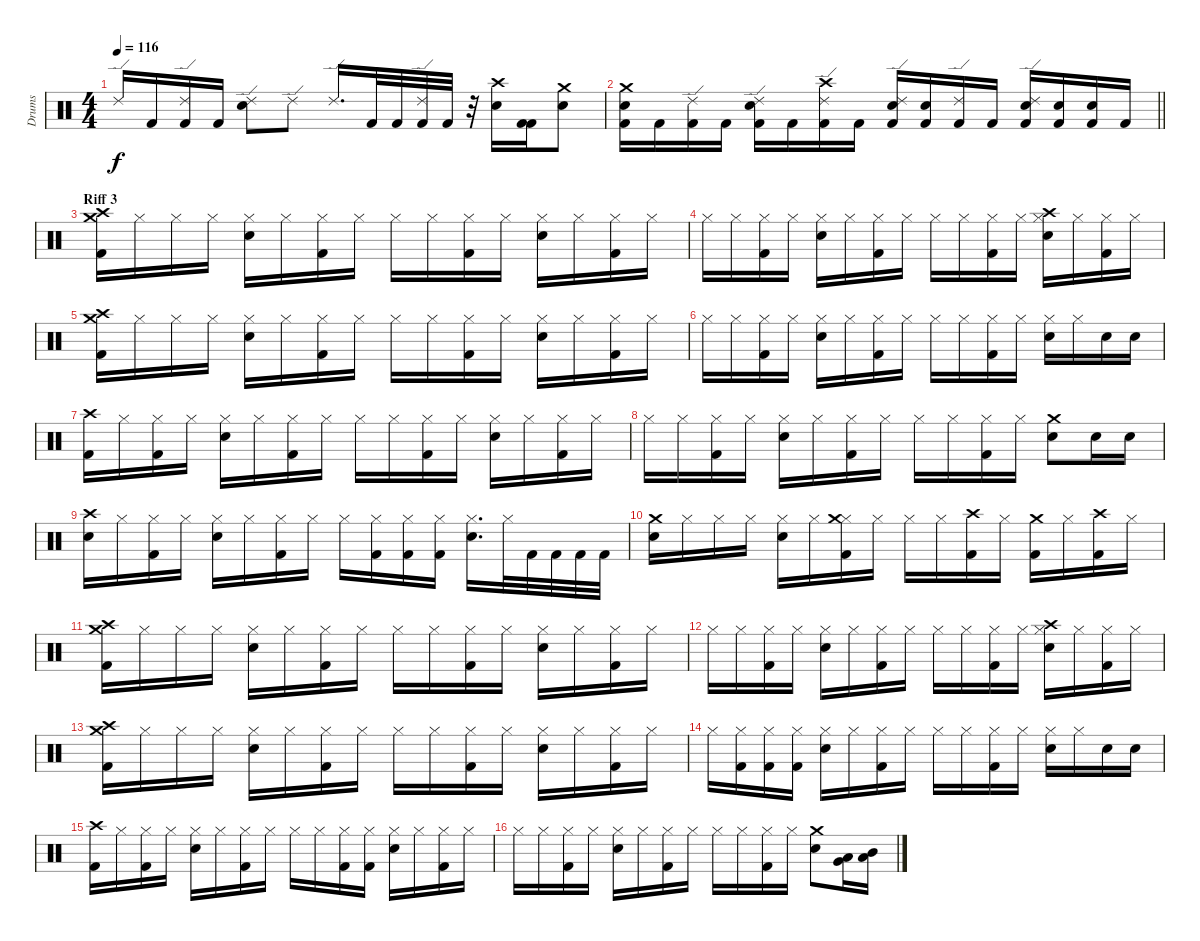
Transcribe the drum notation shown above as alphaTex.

\track ("Drums" "Drums") {instrument percussion}
\staff {score}
\articulation defaults
\ts (4 4)
\tempo 116
\clef neutral
\ks c "Ride (edge) 2".16{dy f} "Kick (hit) 2".16
("Ride (edge) 2" "Kick (hit) 2").16 "Kick (hit) 2".16 ("Ride (edge) 2" "Snare (hit) 2").8 "Ride (edge) 2".8 "Ride (edge) 2".16{d} "Kick (hit) 2".32 "Kick (hit) 2".32 ("Ride (edge) 2" "Kick (hit) 2").32 "Kick (hit) 2".32 r.32 ("Snare (hit) 2" "Crash high (hit)").16 ("Kick (hit) 2" "Kick (hit) 2").16 ("Snare (hit) 2" "Crash medium (hit)").8 |
\barLineRight lightlight
("Kick (hit) 2" "Snare (hit) 2" "Crash medium (hit)").16 "Kick (hit) 2".16 ("Ride (edge) 2" "Kick (hit) 2").16 "Kick (hit) 2".16 ("Ride (edge) 2" "Kick (hit) 2" "Snare (hit) 2").16 "Kick (hit) 2".16 ("Ride (edge) 2" "Kick (hit) 2" "Crash high (hit)").16 "Kick (hit) 2".16 ("Ride (edge) 2" "Kick (hit) 2" "Snare (hit) 2").16 ("Kick (hit) 2" "Snare (hit) 2").16 ("Ride (edge) 2" "Kick (hit) 2").16 "Kick (hit) 2".16 ("Ride (edge) 2" "Kick (hit) 2" "Snare (hit) 2").16 ("Kick (hit) 2" "Snare (hit) 2").16 ("Kick (hit) 2" "Snare (hit) 2").16 "Kick (hit) 2".16 |
\section ("" "Riff 3")
("Kick (hit) 2" "Crash medium (hit)" "Crash high (hit)").16 "Hi-Hat (closed)".16 "Hi-Hat (closed)".16 "Hi-Hat (closed)".16 ("Hi-Hat (closed)" "Snare (hit) 2").16 "Hi-Hat (closed)".16 ("Hi-Hat (closed)" "Kick (hit) 2").16 "Hi-Hat (closed)".16 "Hi-Hat (closed)".16 "Hi-Hat (closed)".16 ("Hi-Hat (closed)" "Kick (hit) 2").16 "Hi-Hat (closed)".16 ("Hi-Hat (closed)" "Snare (hit) 2").16 "Hi-Hat (closed)".16 ("Hi-Hat (closed)" "Kick (hit) 2").16 "Hi-Hat (closed)".16 |
"Hi-Hat (closed)".16 "Hi-Hat (closed)".16 ("Hi-Hat (closed)" "Kick (hit) 2").16 "Hi-Hat (closed)".16 ("Hi-Hat (closed)" "Snare (hit) 2").16 "Hi-Hat (closed)".16 ("Hi-Hat (closed)" "Kick (hit) 2").16 "Hi-Hat (closed)".16 "Hi-Hat (closed)".16 "Hi-Hat (closed)".16 ("Hi-Hat (closed)" "Kick (hit) 2").16 "Hi-Hat (closed)".16 ("Hi-Hat (closed)" "Snare (hit) 2" "Crash high (hit)").16 "Hi-Hat (closed)".16 ("Hi-Hat (closed)" "Kick (hit) 2").16 "Hi-Hat (closed)".16 |
("Kick (hit) 2" "Crash medium (hit)" "Crash high (hit)").16 "Hi-Hat (closed)".16 "Hi-Hat (closed)".16 "Hi-Hat (closed)".16 ("Hi-Hat (closed)" "Snare (hit) 2").16 "Hi-Hat (closed)".16 ("Hi-Hat (closed)" "Kick (hit) 2").16 "Hi-Hat (closed)".16 "Hi-Hat (closed)".16 "Hi-Hat (closed)".16 ("Hi-Hat (closed)" "Kick (hit) 2").16 "Hi-Hat (closed)".16 ("Hi-Hat (closed)" "Snare (hit) 2").16 "Hi-Hat (closed)".16 ("Hi-Hat (closed)" "Kick (hit) 2").16 "Hi-Hat (closed)".16 |
"Hi-Hat (closed)".16 "Hi-Hat (closed)".16 ("Hi-Hat (closed)" "Kick (hit) 2").16 "Hi-Hat (closed)".16 ("Hi-Hat (closed)" "Snare (hit) 2").16 "Hi-Hat (closed)".16 ("Hi-Hat (closed)" "Kick (hit) 2").16 "Hi-Hat (closed)".16 "Hi-Hat (closed)".16 "Hi-Hat (closed)".16 ("Hi-Hat (closed)" "Kick (hit) 2").16 "Hi-Hat (closed)".16 ("Hi-Hat (closed)" "Snare (hit) 2").16 "Hi-Hat (closed)".16 "Snare (hit) 2".16 "Snare (hit) 2".16 |
("Kick (hit) 2" "Crash high (hit)").16 "Hi-Hat (closed)".16 ("Hi-Hat (closed)" "Kick (hit) 2").16 "Hi-Hat (closed)".16 ("Hi-Hat (closed)" "Snare (hit) 2").16 "Hi-Hat (closed)".16 ("Hi-Hat (closed)" "Kick (hit) 2").16 "Hi-Hat (closed)".16 "Hi-Hat (closed)".16 "Hi-Hat (closed)".16 ("Hi-Hat (closed)" "Kick (hit) 2").16 "Hi-Hat (closed)".16 ("Hi-Hat (closed)" "Snare (hit) 2").16 "Hi-Hat (closed)".16 ("Hi-Hat (closed)" "Kick (hit) 2").16 "Hi-Hat (closed)".16 |
"Hi-Hat (closed)".16 "Hi-Hat (closed)".16 ("Hi-Hat (closed)" "Kick (hit) 2").16 "Hi-Hat (closed)".16 ("Hi-Hat (closed)" "Snare (hit) 2").16 "Hi-Hat (closed)".16 ("Hi-Hat (closed)" "Kick (hit) 2").16 "Hi-Hat (closed)".16 "Hi-Hat (closed)".16 "Hi-Hat (closed)".16 ("Hi-Hat (closed)" "Kick (hit) 2").16 "Hi-Hat (closed)".16 ("Snare (hit) 2" "Crash medium (hit)").8 "Snare (hit) 2".16 "Snare (hit) 2".16 |
("Snare (hit) 2" "Crash high (hit)").16 "Hi-Hat (closed)".16 ("Hi-Hat (closed)" "Kick (hit) 2").16 "Hi-Hat (closed)".16 ("Hi-Hat (closed)" "Snare (hit) 2").16 "Hi-Hat (closed)".16 ("Hi-Hat (closed)" "Kick (hit) 2").16 "Hi-Hat (closed)".16 "Hi-Hat (closed)".16 ("Hi-Hat (closed)" "Kick (hit) 2").16 ("Hi-Hat (closed)" "Kick (hit) 2").16 ("Hi-Hat (closed)" "Kick (hit) 2").16 ("Hi-Hat (closed)" "Snare (hit) 2").16{d} "Hi-Hat (closed)".32 "Kick (hit) 2".32 "Kick (hit) 2".32 "Kick (hit) 2".32 "Kick (hit) 2".32 |
("Snare (hit) 2" "Crash medium (hit)").16 "Hi-Hat (closed)".16 "Hi-Hat (closed)".16 "Hi-Hat (closed)".16 ("Hi-Hat (closed)" "Snare (hit) 2").16 "Hi-Hat (closed)".16 ("Hi-Hat (closed)" "Kick (hit) 2" "Crash medium (hit)").16 "Hi-Hat (closed)".16 "Hi-Hat (closed)".16 "Hi-Hat (closed)".16 ("Kick (hit) 2" "Crash high (hit)").16 "Hi-Hat (closed)".16 ("Kick (hit) 2" "Crash medium (hit)").16 "Hi-Hat (closed)".16 ("Kick (hit) 2" "Crash high (hit)").16 "Hi-Hat (closed)".16 |
("Kick (hit) 2" "Crash medium (hit)" "Crash high (hit)").16 "Hi-Hat (closed)".16 "Hi-Hat (closed)".16 "Hi-Hat (closed)".16 ("Hi-Hat (closed)" "Snare (hit) 2").16 "Hi-Hat (closed)".16 ("Hi-Hat (closed)" "Kick (hit) 2").16 "Hi-Hat (closed)".16 "Hi-Hat (closed)".16 "Hi-Hat (closed)".16 ("Hi-Hat (closed)" "Kick (hit) 2").16 "Hi-Hat (closed)".16 ("Hi-Hat (closed)" "Snare (hit) 2").16 "Hi-Hat (closed)".16 ("Hi-Hat (closed)" "Kick (hit) 2").16 "Hi-Hat (closed)".16 |
"Hi-Hat (closed)".16 "Hi-Hat (closed)".16 ("Hi-Hat (closed)" "Kick (hit) 2").16 "Hi-Hat (closed)".16 ("Hi-Hat (closed)" "Snare (hit) 2").16 "Hi-Hat (closed)".16 ("Hi-Hat (closed)" "Kick (hit) 2").16 "Hi-Hat (closed)".16 "Hi-Hat (closed)".16 "Hi-Hat (closed)".16 ("Hi-Hat (closed)" "Kick (hit) 2").16 "Hi-Hat (closed)".16 ("Hi-Hat (closed)" "Snare (hit) 2" "Crash high (hit)").16 "Hi-Hat (closed)".16 ("Hi-Hat (closed)" "Kick (hit) 2").16 "Hi-Hat (closed)".16 |
("Kick (hit) 2" "Crash medium (hit)" "Crash high (hit)").16 "Hi-Hat (closed)".16 "Hi-Hat (closed)".16 "Hi-Hat (closed)".16 ("Hi-Hat (closed)" "Snare (hit) 2").16 "Hi-Hat (closed)".16 ("Hi-Hat (closed)" "Kick (hit) 2").16 "Hi-Hat (closed)".16 "Hi-Hat (closed)".16 "Hi-Hat (closed)".16 ("Hi-Hat (closed)" "Kick (hit) 2").16 "Hi-Hat (closed)".16 ("Hi-Hat (closed)" "Snare (hit) 2").16 "Hi-Hat (closed)".16 ("Hi-Hat (closed)" "Kick (hit) 2").16 "Hi-Hat (closed)".16 |
"Hi-Hat (closed)".16 ("Hi-Hat (closed)" "Kick (hit) 2").16 ("Hi-Hat (closed)" "Kick (hit) 2").16 ("Hi-Hat (closed)" "Kick (hit) 2").16 ("Hi-Hat (closed)" "Snare (hit) 2").16 "Hi-Hat (closed)".16 ("Hi-Hat (closed)" "Kick (hit) 2").16 "Hi-Hat (closed)".16 "Hi-Hat (closed)".16 "Hi-Hat (closed)".16 ("Hi-Hat (closed)" "Kick (hit) 2").16 "Hi-Hat (closed)".16 ("Hi-Hat (closed)" "Snare (hit) 2").16 "Hi-Hat (closed)".16 "Snare (hit) 2".16 "Snare (hit) 2".16 |
("Kick (hit) 2" "Crash high (hit)").16 "Hi-Hat (closed)".16 ("Hi-Hat (closed)" "Kick (hit) 2").16 "Hi-Hat (closed)".16 ("Hi-Hat (closed)" "Snare (hit) 2").16 "Hi-Hat (closed)".16 ("Hi-Hat (closed)" "Kick (hit) 2").16 "Hi-Hat (closed)".16 "Hi-Hat (closed)".16 "Hi-Hat (closed)".16 ("Hi-Hat (closed)" "Kick (hit) 2").16 ("Hi-Hat (closed)" "Kick (hit) 2").16 ("Hi-Hat (closed)" "Snare (hit) 2").16 "Hi-Hat (closed)".16 ("Hi-Hat (closed)" "Kick (hit) 2").16 "Hi-Hat (closed)".16 |
"Hi-Hat (closed)".16 "Hi-Hat (closed)".16 ("Hi-Hat (closed)" "Kick (hit) 2").16 "Hi-Hat (closed)".16 ("Hi-Hat (closed)" "Snare (hit) 2").16 "Hi-Hat (closed)".16 ("Hi-Hat (closed)" "Kick (hit) 2").16 "Hi-Hat (closed)".16 "Hi-Hat (closed)".16 "Hi-Hat (closed)".16 ("Hi-Hat (closed)" "Kick (hit) 2").16 "Hi-Hat (closed)".16 ("Snare (hit) 2" "Crash medium (hit)").8 ("Low Tom (hit)" "Very Low Tom (hit)").16 ("Mid Tom (hit)" "Low Tom (hit)").16
